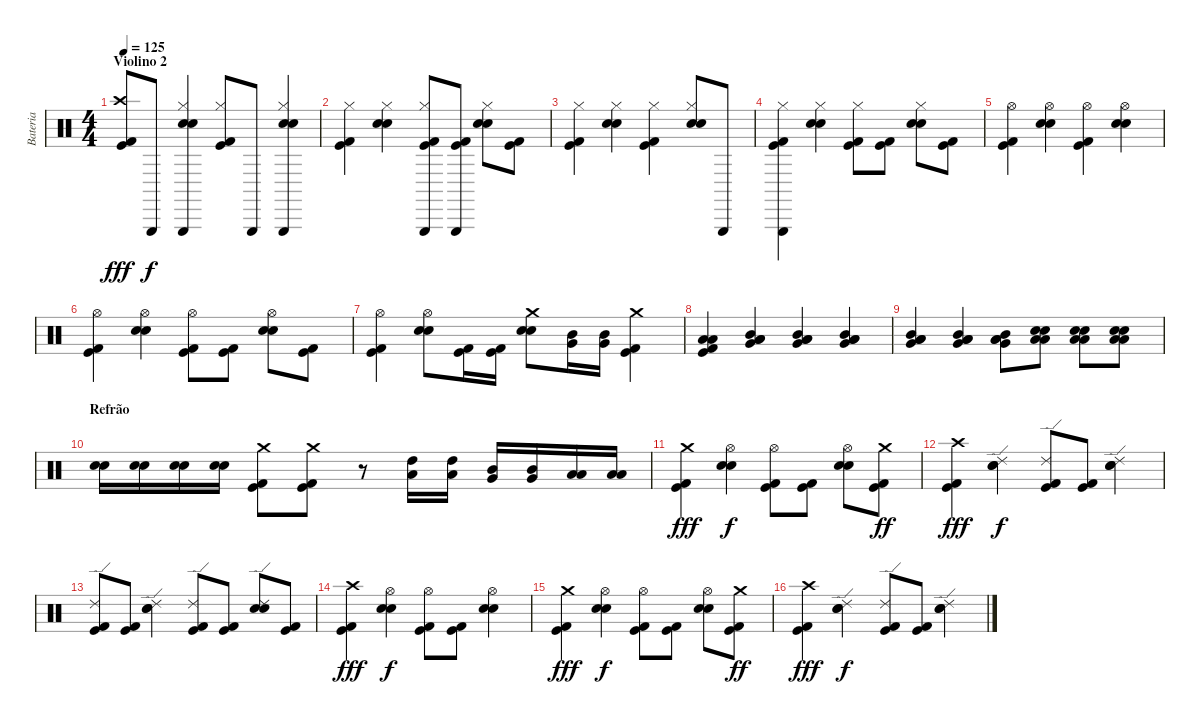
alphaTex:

\track ("Bateria" "Bateria") {instrument percussion}
\staff {score}
\articulation defaults
\ts (4 4)
\section ("" "Violino 2")
\tempo 125
\clef neutral
\ks c
("Crash high (hit)" "Kick (hit) 2" "Kick (hit)").8{dy fff} "Triangle (hit)".8{dy f} ("Triangle (hit)" "Hi-Hat (closed)" "Electric Snare (hit)" "Snare (hit) 2").4 ("Hi-Hat (closed)" "Kick (hit) 2" "Kick (hit)").8 "Triangle (hit)".8 ("Triangle (hit)" "Hi-Hat (closed)" "Electric Snare (hit)" "Snare (hit) 2").4 |
("Hi-Hat (closed)" "Kick (hit) 2" "Kick (hit)").4 ("Hi-Hat (closed)" "Electric Snare (hit)" "Snare (hit) 2").4 ("Triangle (hit)" "Hi-Hat (closed)" "Kick (hit) 2" "Kick (hit)").8 ("Triangle (hit)" "Kick (hit) 2" "Kick (hit)").8 ("Hi-Hat (closed)" "Electric Snare (hit)" "Snare (hit) 2").8 ("Kick (hit) 2" "Kick (hit)").8 |
("Hi-Hat (closed)" "Kick (hit) 2" "Kick (hit)").4 ("Hi-Hat (closed)" "Electric Snare (hit)" "Snare (hit) 2").4 ("Hi-Hat (closed)" "Kick (hit) 2" "Kick (hit)").4 ("Hi-Hat (closed)" "Electric Snare (hit)" "Snare (hit) 2").8 "Triangle (hit)".8 |
("Triangle (hit)" "Hi-Hat (closed)" "Kick (hit) 2" "Kick (hit)").4 ("Hi-Hat (closed)" "Electric Snare (hit)" "Snare (hit) 2").4 ("Hi-Hat (closed)" "Kick (hit) 2" "Kick (hit)").8 ("Kick (hit) 2" "Kick (hit)").8 ("Hi-Hat (closed)" "Electric Snare (hit)" "Snare (hit) 2").8 ("Kick (hit) 2" "Kick (hit)").8 |
("Hi-Hat (open)" "Kick (hit) 2" "Kick (hit)").4 ("Hi-Hat (open)" "Electric Snare (hit)" "Snare (hit) 2").4 ("Hi-Hat (open)" "Kick (hit) 2" "Kick (hit)").4 ("Hi-Hat (open)" "Electric Snare (hit)" "Snare (hit) 2").4 |
("Hi-Hat (open)" "Kick (hit) 2" "Kick (hit)").4 ("Hi-Hat (open)" "Electric Snare (hit)" "Snare (hit) 2").4 ("Hi-Hat (open)" "Kick (hit) 2" "Kick (hit)").8 ("Kick (hit) 2" "Kick (hit)").8 ("Hi-Hat (open)" "Electric Snare (hit)" "Snare (hit) 2").8 ("Kick (hit) 2" "Kick (hit)").8 |
("Hi-Hat (open)" "Kick (hit) 2" "Kick (hit)").4 ("Hi-Hat (open)" "Electric Snare (hit)" "Snare (hit) 2").8 ("Kick (hit) 2" "Kick (hit)").16 ("Kick (hit) 2" "Kick (hit)").16 ("Crash medium (hit)" "Electric Snare (hit)" "Snare (hit) 2").8 ("Mid Tom (hit)" "Very Low Tom (hit)").16 ("Mid Tom (hit)" "Very Low Tom (hit)").16 ("Crash medium (hit)" "Kick (hit) 2" "Kick (hit)").4 |
("Low Tom (hit)" "Low Floor Tom (hit)" "Kick (hit) 2" "Kick (hit)").4 ("Low Tom (hit)" "Low Floor Tom (hit)" "Mid Tom (hit)" "Very Low Tom (hit)").4 ("Low Tom (hit)" "Low Floor Tom (hit)" "Mid Tom (hit)" "Very Low Tom (hit)").4 ("Low Tom (hit)" "Low Floor Tom (hit)" "Mid Tom (hit)" "Very Low Tom (hit)").4 |
("Low Tom (hit)" "Low Floor Tom (hit)" "Mid Tom (hit)" "Very Low Tom (hit)").4 ("Low Tom (hit)" "Low Floor Tom (hit)" "Mid Tom (hit)" "Very Low Tom (hit)").4 ("Low Tom (hit)" "Low Floor Tom (hit)" "Mid Tom (hit)" "Very Low Tom (hit)").8 ("Electric Snare (hit)" "Snare (hit) 2" "Low Tom (hit)" "Low Floor Tom (hit)").8 ("Electric Snare (hit)" "Snare (hit) 2" "Low Tom (hit)" "Low Floor Tom (hit)").8 ("Electric Snare (hit)" "Snare (hit) 2" "Low Tom (hit)" "Low Floor Tom (hit)").8 |
\section ("" "Refrão")
("Electric Snare (hit)" "Snare (hit) 2").16 ("Electric Snare (hit)" "Snare (hit) 2").16 ("Electric Snare (hit)" "Snare (hit) 2").16 ("Electric Snare (hit)" "Snare (hit) 2").16 ("Crash medium (hit)" "Kick (hit) 2" "Kick (hit)").8 ("Crash medium (hit)" "Kick (hit) 2" "Kick (hit)").8 r.8 ("High Tom (hit)" "Low Tom (hit)").16 ("High Tom (hit)" "Low Tom (hit)").16 ("Mid Tom (hit)" "Very Low Tom (hit)").16 ("Mid Tom (hit)" "Very Low Tom (hit)").16 ("Low Tom (hit)" "Low Floor Tom (hit)").16 ("Low Tom (hit)" "Low Floor Tom (hit)").16 |
("Crash medium (hit)" "Kick (hit) 2" "Kick (hit)").4{dy fff} ("Hi-Hat (open)" "Electric Snare (hit)" "Snare (hit) 2").4{dy f} ("Hi-Hat (open)" "Kick (hit) 2" "Kick (hit)").8 ("Kick (hit) 2" "Kick (hit)").8 ("Hi-Hat (open)" "Electric Snare (hit)" "Snare (hit) 2").8 ("Crash medium (hit)" "Kick (hit) 2" "Kick (hit)").8{dy ff} |
("Crash high (hit)" "Kick (hit) 2" "Kick (hit)").4{dy fff} ("Ride (edge) 2" "Electric Snare (hit)" "Snare (hit) 2").4{dy f} ("Ride (edge) 2" "Kick (hit) 2" "Kick (hit)").8 ("Kick (hit) 2" "Kick (hit)").8 ("Ride (edge) 2" "Electric Snare (hit)" "Snare (hit) 2").4 |
("Ride (edge) 2" "Kick (hit) 2" "Kick (hit)").8 ("Kick (hit) 2" "Kick (hit)").8 ("Ride (edge) 2" "Electric Snare (hit)" "Snare (hit) 2").4 ("Ride (edge) 2" "Kick (hit) 2" "Kick (hit)").8 ("Kick (hit) 2" "Kick (hit)").8 ("Ride (edge) 2" "Electric Snare (hit)" "Snare (hit) 2").8 ("Kick (hit) 2" "Kick (hit)").8 |
("Crash high (hit)" "Kick (hit) 2" "Kick (hit)").4{dy fff} ("Hi-Hat (open)" "Electric Snare (hit)" "Snare (hit) 2").4{dy f} ("Hi-Hat (open)" "Kick (hit) 2" "Kick (hit)").8 ("Kick (hit) 2" "Kick (hit)").8 ("Hi-Hat (open)" "Electric Snare (hit)" "Snare (hit) 2").4 |
("Crash medium (hit)" "Kick (hit) 2" "Kick (hit)").4{dy fff} ("Hi-Hat (open)" "Electric Snare (hit)" "Snare (hit) 2").4{dy f} ("Hi-Hat (open)" "Kick (hit) 2" "Kick (hit)").8 ("Kick (hit) 2" "Kick (hit)").8 ("Hi-Hat (open)" "Electric Snare (hit)" "Snare (hit) 2").8 ("Crash medium (hit)" "Kick (hit) 2" "Kick (hit)").8{dy ff} |
("Crash high (hit)" "Kick (hit) 2" "Kick (hit)").4{dy fff} ("Ride (edge) 2" "Electric Snare (hit)" "Snare (hit) 2").4{dy f} ("Ride (edge) 2" "Kick (hit) 2" "Kick (hit)").8 ("Kick (hit) 2" "Kick (hit)").8 ("Ride (edge) 2" "Electric Snare (hit)" "Snare (hit) 2").4
